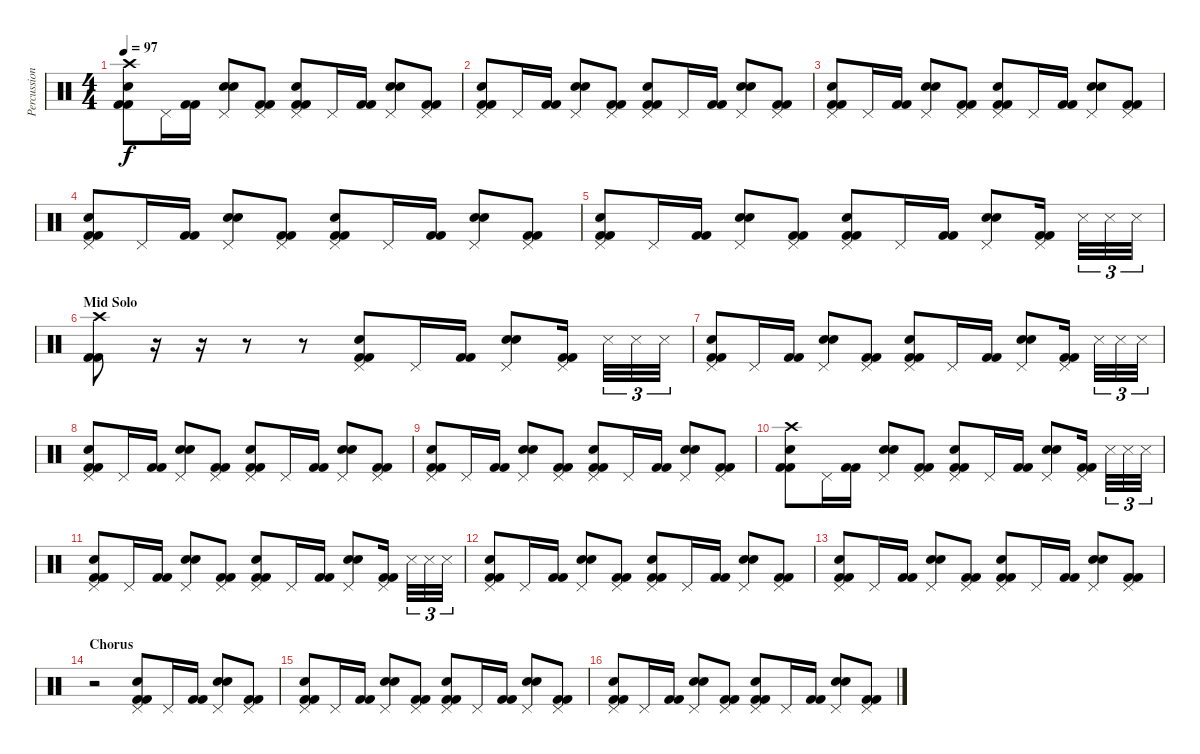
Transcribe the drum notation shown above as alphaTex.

\track ("Percussions" "Percussion") {instrument percussion}
\staff {score}
\articulation defaults
\ts (4 4)
\tempo 97
\clef neutral
\ks c
("Crash high (hit)" "Hand Clap (hit)" "Kick (hit) 2" "Kick (hit) 2").8{dy f} "Pedal Hi-Hat (hit)".16 ("Kick (hit) 2" "Kick (hit) 2").16 ("Pedal Hi-Hat (hit)" "Electric Snare (hit)" "Hand Clap (hit)").8 ("Pedal Hi-Hat (hit)" "Kick (hit) 2" "Kick (hit) 2").8 ("Pedal Hi-Hat (hit)" "Hand Clap (hit)" "Kick (hit) 2" "Kick (hit) 2").8 "Pedal Hi-Hat (hit)".16 ("Kick (hit) 2" "Kick (hit) 2").16 ("Pedal Hi-Hat (hit)" "Electric Snare (hit)" "Hand Clap (hit)").8 ("Pedal Hi-Hat (hit)" "Kick (hit) 2" "Kick (hit) 2").8 |
("Pedal Hi-Hat (hit)" "Hand Clap (hit)" "Kick (hit) 2" "Kick (hit) 2").8 "Pedal Hi-Hat (hit)".16 ("Kick (hit) 2" "Kick (hit) 2").16 ("Pedal Hi-Hat (hit)" "Electric Snare (hit)" "Hand Clap (hit)").8 ("Pedal Hi-Hat (hit)" "Kick (hit) 2" "Kick (hit) 2").8 ("Pedal Hi-Hat (hit)" "Hand Clap (hit)" "Kick (hit) 2" "Kick (hit) 2").8 "Pedal Hi-Hat (hit)".16 ("Kick (hit) 2" "Kick (hit) 2").16 ("Pedal Hi-Hat (hit)" "Electric Snare (hit)" "Hand Clap (hit)").8 ("Pedal Hi-Hat (hit)" "Kick (hit) 2" "Kick (hit) 2").8 |
("Pedal Hi-Hat (hit)" "Hand Clap (hit)" "Kick (hit) 2" "Kick (hit) 2").8 "Pedal Hi-Hat (hit)".16 ("Kick (hit) 2" "Kick (hit) 2").16 ("Pedal Hi-Hat (hit)" "Electric Snare (hit)" "Hand Clap (hit)").8 ("Pedal Hi-Hat (hit)" "Kick (hit) 2" "Kick (hit) 2").8 ("Pedal Hi-Hat (hit)" "Hand Clap (hit)" "Kick (hit) 2" "Kick (hit) 2").8 "Pedal Hi-Hat (hit)".16 ("Kick (hit) 2" "Kick (hit) 2").16 ("Pedal Hi-Hat (hit)" "Electric Snare (hit)" "Hand Clap (hit)").8 ("Pedal Hi-Hat (hit)" "Kick (hit) 2" "Kick (hit) 2").8 |
("Pedal Hi-Hat (hit)" "Hand Clap (hit)" "Kick (hit) 2" "Kick (hit) 2").8 "Pedal Hi-Hat (hit)".16 ("Kick (hit) 2" "Kick (hit) 2").16 ("Pedal Hi-Hat (hit)" "Electric Snare (hit)" "Hand Clap (hit)").8 ("Pedal Hi-Hat (hit)" "Kick (hit) 2" "Kick (hit) 2").8 ("Pedal Hi-Hat (hit)" "Hand Clap (hit)" "Kick (hit) 2" "Kick (hit) 2").8 "Pedal Hi-Hat (hit)".16 ("Kick (hit) 2" "Kick (hit) 2").16 ("Pedal Hi-Hat (hit)" "Electric Snare (hit)" "Hand Clap (hit)").8 ("Pedal Hi-Hat (hit)" "Kick (hit) 2" "Kick (hit) 2").8 |
("Pedal Hi-Hat (hit)" "Hand Clap (hit)" "Kick (hit) 2" "Kick (hit) 2").8 "Pedal Hi-Hat (hit)".16 ("Kick (hit) 2" "Kick (hit) 2").16 ("Pedal Hi-Hat (hit)" "Electric Snare (hit)" "Hand Clap (hit)").8 ("Pedal Hi-Hat (hit)" "Kick (hit) 2" "Kick (hit) 2").8 ("Pedal Hi-Hat (hit)" "Hand Clap (hit)" "Kick (hit) 2" "Kick (hit) 2").8 "Pedal Hi-Hat (hit)".16 ("Kick (hit) 2" "Kick (hit) 2").16 ("Pedal Hi-Hat (hit)" "Hand Clap (hit)" "Electric Snare (hit)").8 ("Pedal Hi-Hat (hit)" "Kick (hit) 2" "Kick (hit) 2").16 "Snare (side stick) 3".32{tu (3 2)} "Snare (side stick) 3".32{tu (3 2)} "Snare (side stick) 3".32{tu (3 2)} |
\section ("" "Mid Solo")
("Crash high (hit)" "Kick (hit) 2" "Kick (hit) 2").8 r.16 r.16 r.8 r.8 ("Pedal Hi-Hat (hit)" "Hand Clap (hit)" "Kick (hit) 2" "Kick (hit) 2").8 "Pedal Hi-Hat (hit)".16 ("Kick (hit) 2" "Kick (hit) 2").16 ("Pedal Hi-Hat (hit)" "Hand Clap (hit)" "Electric Snare (hit)").8 ("Pedal Hi-Hat (hit)" "Kick (hit) 2" "Kick (hit) 2").16 "Snare (side stick) 3".32{tu (3 2)} "Snare (side stick) 3".32{tu (3 2)} "Snare (side stick) 3".32{tu (3 2)} |
("Pedal Hi-Hat (hit)" "Hand Clap (hit)" "Kick (hit) 2" "Kick (hit) 2").8 "Pedal Hi-Hat (hit)".16 ("Kick (hit) 2" "Kick (hit) 2").16 ("Pedal Hi-Hat (hit)" "Electric Snare (hit)" "Hand Clap (hit)").8 ("Pedal Hi-Hat (hit)" "Kick (hit) 2" "Kick (hit) 2").8 ("Pedal Hi-Hat (hit)" "Hand Clap (hit)" "Kick (hit) 2" "Kick (hit) 2").8 "Pedal Hi-Hat (hit)".16 ("Kick (hit) 2" "Kick (hit) 2").16 ("Pedal Hi-Hat (hit)" "Electric Snare (hit)" "Hand Clap (hit)").8 ("Pedal Hi-Hat (hit)" "Kick (hit) 2" "Kick (hit) 2").16 "Snare (side stick) 3".32{tu (3 2)} "Snare (side stick) 3".32{tu (3 2)} "Snare (side stick) 3".32{tu (3 2)} |
("Pedal Hi-Hat (hit)" "Hand Clap (hit)" "Kick (hit) 2" "Kick (hit) 2").8 "Pedal Hi-Hat (hit)".16 ("Kick (hit) 2" "Kick (hit) 2").16 ("Pedal Hi-Hat (hit)" "Electric Snare (hit)" "Hand Clap (hit)").8 ("Pedal Hi-Hat (hit)" "Kick (hit) 2" "Kick (hit) 2").8 ("Pedal Hi-Hat (hit)" "Hand Clap (hit)" "Kick (hit) 2" "Kick (hit) 2").8 "Pedal Hi-Hat (hit)".16 ("Kick (hit) 2" "Kick (hit) 2").16 ("Pedal Hi-Hat (hit)" "Electric Snare (hit)" "Hand Clap (hit)").8 ("Pedal Hi-Hat (hit)" "Kick (hit) 2" "Kick (hit) 2").8 |
("Pedal Hi-Hat (hit)" "Hand Clap (hit)" "Kick (hit) 2" "Kick (hit) 2").8 "Pedal Hi-Hat (hit)".16 ("Kick (hit) 2" "Kick (hit) 2").16 ("Pedal Hi-Hat (hit)" "Electric Snare (hit)" "Hand Clap (hit)").8 ("Pedal Hi-Hat (hit)" "Kick (hit) 2" "Kick (hit) 2").8 ("Pedal Hi-Hat (hit)" "Hand Clap (hit)" "Kick (hit) 2" "Kick (hit) 2").8 "Pedal Hi-Hat (hit)".16 ("Kick (hit) 2" "Kick (hit) 2").16 ("Pedal Hi-Hat (hit)" "Electric Snare (hit)" "Hand Clap (hit)").8 ("Pedal Hi-Hat (hit)" "Kick (hit) 2" "Kick (hit) 2").8 |
("Crash high (hit)" "Hand Clap (hit)" "Kick (hit) 2" "Kick (hit) 2").8 "Pedal Hi-Hat (hit)".16 ("Kick (hit) 2" "Kick (hit) 2").16 ("Pedal Hi-Hat (hit)" "Electric Snare (hit)" "Hand Clap (hit)").8 ("Pedal Hi-Hat (hit)" "Kick (hit) 2" "Kick (hit) 2").8 ("Pedal Hi-Hat (hit)" "Hand Clap (hit)" "Kick (hit) 2" "Kick (hit) 2").8 "Pedal Hi-Hat (hit)".16 ("Kick (hit) 2" "Kick (hit) 2").16 ("Pedal Hi-Hat (hit)" "Electric Snare (hit)" "Hand Clap (hit)").8 ("Pedal Hi-Hat (hit)" "Kick (hit) 2" "Kick (hit) 2").16 "Snare (side stick) 3".32{tu (3 2)} "Snare (side stick) 3".32{tu (3 2)} "Snare (side stick) 3".32{tu (3 2)} |
("Pedal Hi-Hat (hit)" "Hand Clap (hit)" "Kick (hit) 2" "Kick (hit) 2").8 "Pedal Hi-Hat (hit)".16 ("Kick (hit) 2" "Kick (hit) 2").16 ("Pedal Hi-Hat (hit)" "Electric Snare (hit)" "Hand Clap (hit)").8 ("Pedal Hi-Hat (hit)" "Kick (hit) 2" "Kick (hit) 2").8 ("Pedal Hi-Hat (hit)" "Hand Clap (hit)" "Kick (hit) 2" "Kick (hit) 2").8 "Pedal Hi-Hat (hit)".16 ("Kick (hit) 2" "Kick (hit) 2").16 ("Pedal Hi-Hat (hit)" "Electric Snare (hit)" "Hand Clap (hit)").8 ("Pedal Hi-Hat (hit)" "Kick (hit) 2" "Kick (hit) 2").16 "Snare (side stick) 3".32{tu (3 2)} "Snare (side stick) 3".32{tu (3 2)} "Snare (side stick) 3".32{tu (3 2)} |
("Pedal Hi-Hat (hit)" "Hand Clap (hit)" "Kick (hit) 2" "Kick (hit) 2").8 "Pedal Hi-Hat (hit)".16 ("Kick (hit) 2" "Kick (hit) 2").16 ("Pedal Hi-Hat (hit)" "Electric Snare (hit)" "Hand Clap (hit)").8 ("Pedal Hi-Hat (hit)" "Kick (hit) 2" "Kick (hit) 2").8 ("Pedal Hi-Hat (hit)" "Hand Clap (hit)" "Kick (hit) 2" "Kick (hit) 2").8 "Pedal Hi-Hat (hit)".16 ("Kick (hit) 2" "Kick (hit) 2").16 ("Pedal Hi-Hat (hit)" "Electric Snare (hit)" "Hand Clap (hit)").8 ("Pedal Hi-Hat (hit)" "Kick (hit) 2" "Kick (hit) 2").8 |
("Pedal Hi-Hat (hit)" "Hand Clap (hit)" "Kick (hit) 2" "Kick (hit) 2").8 "Pedal Hi-Hat (hit)".16 ("Kick (hit) 2" "Kick (hit) 2").16 ("Pedal Hi-Hat (hit)" "Electric Snare (hit)" "Hand Clap (hit)").8 ("Pedal Hi-Hat (hit)" "Kick (hit) 2" "Kick (hit) 2").8 ("Pedal Hi-Hat (hit)" "Hand Clap (hit)" "Kick (hit) 2" "Kick (hit) 2").8 "Pedal Hi-Hat (hit)".16 ("Kick (hit) 2" "Kick (hit) 2").16 ("Pedal Hi-Hat (hit)" "Electric Snare (hit)" "Hand Clap (hit)").8 ("Pedal Hi-Hat (hit)" "Kick (hit) 2" "Kick (hit) 2").8 |
\section ("" "Chorus")
r.2 ("Pedal Hi-Hat (hit)" "Hand Clap (hit)" "Kick (hit) 2" "Kick (hit) 2").8 "Pedal Hi-Hat (hit)".16 ("Kick (hit) 2" "Kick (hit) 2").16 ("Pedal Hi-Hat (hit)" "Electric Snare (hit)" "Hand Clap (hit)").8 ("Pedal Hi-Hat (hit)" "Kick (hit) 2" "Kick (hit) 2").8 |
("Pedal Hi-Hat (hit)" "Hand Clap (hit)" "Kick (hit) 2" "Kick (hit) 2").8 "Pedal Hi-Hat (hit)".16 ("Kick (hit) 2" "Kick (hit) 2").16 ("Pedal Hi-Hat (hit)" "Electric Snare (hit)" "Hand Clap (hit)").8 ("Pedal Hi-Hat (hit)" "Kick (hit) 2" "Kick (hit) 2").8 ("Pedal Hi-Hat (hit)" "Hand Clap (hit)" "Kick (hit) 2" "Kick (hit) 2").8 "Pedal Hi-Hat (hit)".16 ("Kick (hit) 2" "Kick (hit) 2").16 ("Pedal Hi-Hat (hit)" "Electric Snare (hit)" "Hand Clap (hit)").8 ("Pedal Hi-Hat (hit)" "Kick (hit) 2" "Kick (hit) 2").8 |
("Pedal Hi-Hat (hit)" "Hand Clap (hit)" "Kick (hit) 2" "Kick (hit) 2").8 "Pedal Hi-Hat (hit)".16 ("Kick (hit) 2" "Kick (hit) 2").16 ("Pedal Hi-Hat (hit)" "Electric Snare (hit)" "Hand Clap (hit)").8 ("Pedal Hi-Hat (hit)" "Kick (hit) 2" "Kick (hit) 2").8 ("Pedal Hi-Hat (hit)" "Hand Clap (hit)" "Kick (hit) 2" "Kick (hit) 2").8 "Pedal Hi-Hat (hit)".16 ("Kick (hit) 2" "Kick (hit) 2").16 ("Pedal Hi-Hat (hit)" "Electric Snare (hit)" "Hand Clap (hit)").8 ("Pedal Hi-Hat (hit)" "Kick (hit) 2" "Kick (hit) 2").8
